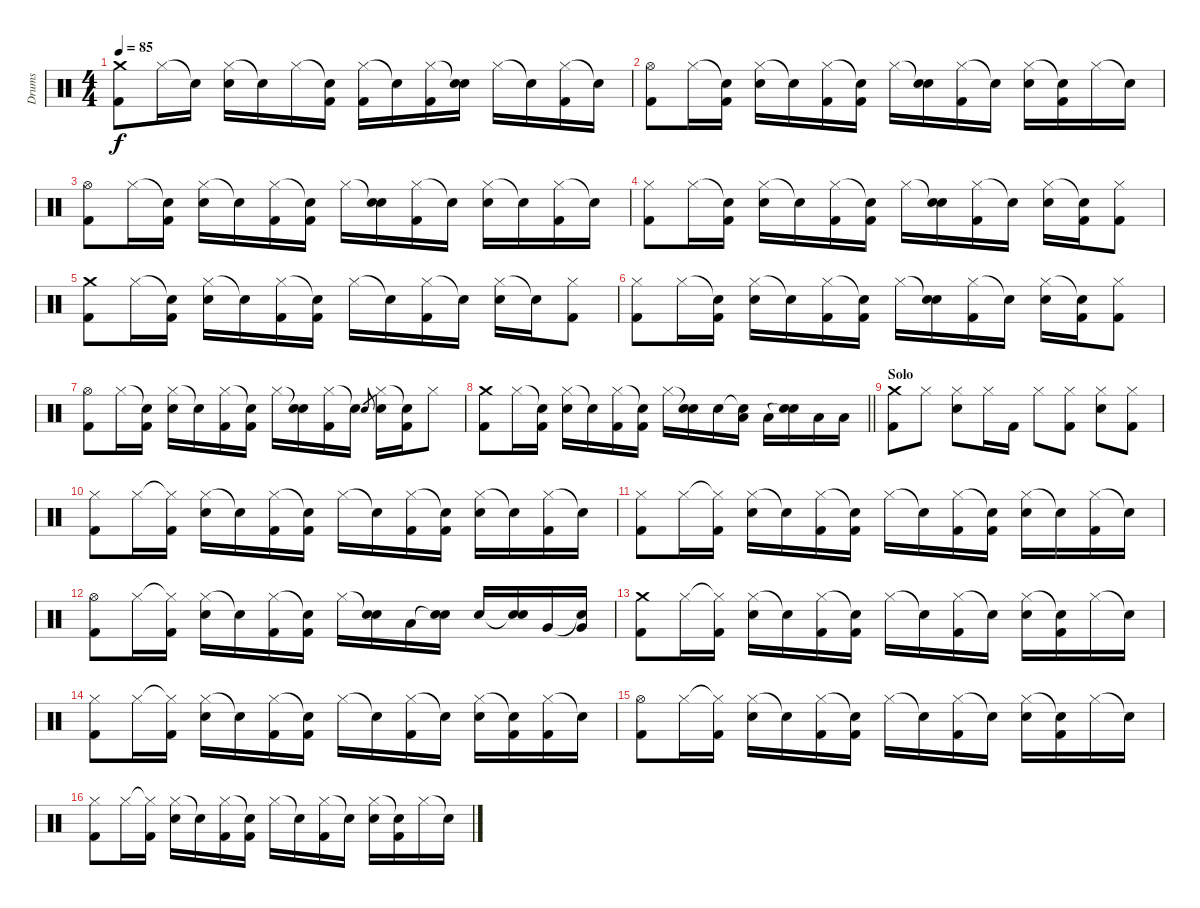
\track ("Drums" "Drums") {instrument percussion}
\staff {score}
\articulation defaults
\ts (4 4)
\tempo 85
\clef neutral
\ks c
("Crash medium (hit)" "Kick (hit) 2").8{dy f} "Hi-Hat (closed)".16 "Snare (hit)"{t}.16 ("Hi-Hat (closed)" "Electric Snare (hit)").16 "Snare (hit)"{t}.16 "Hi-Hat (closed)".16 ("Snare (hit)"{t} "Kick (hit) 2").16 ("Hi-Hat (closed)" "Kick (hit) 2").16 "Snare (hit)"{t}.16 ("Hi-Hat (closed)" "Kick (hit) 2").16 ("Snare (hit)"{t} "Electric Snare (hit)").16 "Hi-Hat (closed)".16 "Snare (hit)"{t}.16 ("Hi-Hat (closed)" "Kick (hit) 2").16 "Snare (hit)"{t}.16 |
("Hi-Hat (open)" "Kick (hit) 2").8 "Hi-Hat (closed)".16 ("Snare (hit)"{t} "Kick (hit) 2").16 ("Hi-Hat (closed)" "Electric Snare (hit)").16 "Snare (hit)"{t}.16 ("Hi-Hat (closed)" "Kick (hit) 2").16 ("Snare (hit)"{t} "Kick (hit) 2").16 "Hi-Hat (closed)".16 ("Snare (hit)"{t} "Electric Snare (hit)").16 ("Hi-Hat (closed)" "Kick (hit) 2").16 "Snare (hit)"{t}.16 ("Hi-Hat (closed)" "Electric Snare (hit)").16 ("Snare (hit)"{t} "Kick (hit) 2").16 "Hi-Hat (closed)".16 "Snare (hit)"{t}.16 |
("Hi-Hat (open)" "Kick (hit) 2").8 "Hi-Hat (closed)".16 ("Snare (hit)"{t} "Kick (hit) 2").16 ("Hi-Hat (closed)" "Electric Snare (hit)").16 "Snare (hit)"{t}.16 ("Hi-Hat (closed)" "Kick (hit) 2").16 ("Snare (hit)"{t} "Kick (hit) 2").16 "Hi-Hat (closed)".16 ("Snare (hit)"{t} "Electric Snare (hit)").16 ("Hi-Hat (closed)" "Kick (hit) 2").16 "Snare (hit)"{t}.16 ("Hi-Hat (closed)" "Electric Snare (hit)").16 "Snare (hit)"{t}.16 ("Hi-Hat (closed)" "Kick (hit) 2").16 "Snare (hit)"{t}.16 |
("Hi-Hat (closed)" "Kick (hit) 2").8 "Hi-Hat (closed)".16 ("Snare (hit)"{t} "Kick (hit) 2").16 ("Hi-Hat (closed)" "Electric Snare (hit)").16 "Snare (hit)"{t}.16 ("Hi-Hat (closed)" "Kick (hit) 2").16 ("Snare (hit)"{t} "Kick (hit) 2").16 "Hi-Hat (closed)".16 ("Snare (hit)"{t} "Electric Snare (hit)").16 ("Hi-Hat (closed)" "Kick (hit) 2").16 "Snare (hit)"{t}.16 ("Hi-Hat (closed)" "Electric Snare (hit)").16 ("Snare (hit)"{t} "Kick (hit) 2").16 ("Hi-Hat (closed)" "Kick (hit) 2").8 |
("Crash medium (hit)" "Kick (hit) 2").8 "Hi-Hat (closed)".16 ("Snare (hit)"{t} "Kick (hit) 2").16 ("Hi-Hat (closed)" "Electric Snare (hit)").16 "Snare (hit)"{t}.16 ("Hi-Hat (closed)" "Kick (hit) 2").16 ("Snare (hit)"{t} "Kick (hit) 2").16 "Hi-Hat (closed)".16 "Snare (hit)"{t}.16 ("Hi-Hat (closed)" "Kick (hit) 2").16 "Snare (hit)"{t}.16 ("Hi-Hat (closed)" "Electric Snare (hit)").16 "Snare (hit)"{t}.16 ("Hi-Hat (closed)" "Kick (hit) 2").8 |
("Hi-Hat (closed)" "Kick (hit) 2").8 "Hi-Hat (closed)".16 ("Snare (hit)"{t} "Kick (hit) 2").16 ("Hi-Hat (closed)" "Electric Snare (hit)").16 "Snare (hit)"{t}.16 ("Hi-Hat (closed)" "Kick (hit) 2").16 ("Snare (hit)"{t} "Kick (hit) 2").16 "Hi-Hat (closed)".16 ("Snare (hit)"{t} "Electric Snare (hit)").16 ("Hi-Hat (closed)" "Kick (hit) 2").16 "Snare (hit)"{t}.16 ("Hi-Hat (closed)" "Electric Snare (hit)").16 ("Snare (hit)"{t} "Kick (hit) 2").16 ("Hi-Hat (closed)" "Kick (hit) 2").8 |
("Hi-Hat (open)" "Kick (hit) 2").8 "Hi-Hat (closed)".16 ("Snare (hit)"{t} "Kick (hit) 2").16 ("Hi-Hat (closed)" "Electric Snare (hit)").16 "Snare (hit)"{t}.16 ("Hi-Hat (closed)" "Kick (hit) 2").16 ("Snare (hit)"{t} "Kick (hit) 2").16 "Hi-Hat (closed)".16 ("Snare (hit)"{t} "Electric Snare (hit)").16 ("Hi-Hat (closed)" "Kick (hit) 2").16 "Snare (hit)"{t}.16 "Electric Snare (hit)".8{gr} ("Hi-Hat (closed)" "Electric Snare (hit)").16 ("Snare (hit)"{t} "Kick (hit) 2").16 "Hi-Hat (closed)".8 |
\barLineRight lightlight
("Crash medium (hit)" "Kick (hit) 2").8 "Hi-Hat (closed)".16 ("Snare (hit)"{t} "Kick (hit) 2").16 ("Hi-Hat (closed)" "Electric Snare (hit)").16 "Snare (hit)"{t}.16 ("Hi-Hat (closed)" "Kick (hit) 2").16 ("Snare (hit)"{t} "Kick (hit) 2").16 "Hi-Hat (closed)".16 ("Snare (hit)"{t} "Electric Snare (hit)").16 "Electric Snare (hit)".16 ("Snare (hit)"{t} "Low Tom (hit)").16 "Low Tom (hit)".16 ("Snare (hit)"{t} "Electric Snare (hit)").16 "Low Tom (hit)".16 "Low Tom (hit)".16 |
\section ("" "Solo")
("Crash medium (hit)" "Kick (hit) 2").8 "Hi-Hat (closed)".8 ("Hi-Hat (closed)" "Electric Snare (hit)").8 "Hi-Hat (closed)".16 "Kick (hit) 2".16 "Hi-Hat (closed)".8 ("Hi-Hat (closed)" "Kick (hit) 2").8 ("Hi-Hat (closed)" "Electric Snare (hit)").8 ("Hi-Hat (closed)" "Kick (hit) 2").8 |
("Hi-Hat (closed)" "Kick (hit) 2").8 "Hi-Hat (closed)".16 ("Hi-Hat (closed)"{t} "Kick (hit) 2").16 ("Hi-Hat (closed)" "Electric Snare (hit)").16 "Snare (hit)"{t}.16 ("Hi-Hat (closed)" "Kick (hit) 2").16 ("Snare (hit)"{t} "Kick (hit) 2").16 "Hi-Hat (closed)".16 "Snare (hit)"{t}.16 ("Hi-Hat (closed)" "Kick (hit) 2").16 ("Snare (hit)"{t} "Kick (hit) 2").16 ("Hi-Hat (closed)" "Electric Snare (hit)").16 "Snare (hit)"{t}.16 ("Hi-Hat (closed)" "Kick (hit) 2").16 "Snare (hit)"{t}.16 |
("Hi-Hat (closed)" "Kick (hit) 2").8 "Hi-Hat (closed)".16 ("Hi-Hat (closed)"{t} "Kick (hit) 2").16 ("Hi-Hat (closed)" "Electric Snare (hit)").16 "Snare (hit)"{t}.16 ("Hi-Hat (closed)" "Kick (hit) 2").16 ("Snare (hit)"{t} "Kick (hit) 2").16 "Hi-Hat (closed)".16 "Snare (hit)"{t}.16 ("Hi-Hat (closed)" "Kick (hit) 2").16 ("Snare (hit)"{t} "Kick (hit) 2").16 ("Hi-Hat (closed)" "Electric Snare (hit)").16 "Snare (hit)"{t}.16 ("Hi-Hat (closed)" "Kick (hit) 2").16 "Snare (hit)"{t}.16 |
("Hi-Hat (open)" "Kick (hit) 2").8 "Hi-Hat (closed)".16 ("Hi-Hat (closed)"{t} "Kick (hit) 2").16 ("Hi-Hat (closed)" "Electric Snare (hit)").16 "Snare (hit)"{t}.16 ("Hi-Hat (closed)" "Kick (hit) 2").16 ("Snare (hit)"{t} "Kick (hit) 2").16 "Hi-Hat (closed)".16 ("Snare (hit)"{t} "Electric Snare (hit)").16 "Low Tom (hit)".16 ("Snare (hit)"{t} "Electric Snare (hit)").16 "Electric Snare (hit)".16 ("Snare (hit)"{t} "Electric Snare (hit)").16 "Very Low Tom (hit)".16 ("Snare (hit)"{t} "Very Low Tom (hit)").16 |
("Crash medium (hit)" "Kick (hit) 2").8 "Hi-Hat (closed)".16 ("Hi-Hat (closed)"{t} "Kick (hit) 2").16 ("Hi-Hat (closed)" "Electric Snare (hit)").16 "Snare (hit)"{t}.16 ("Hi-Hat (closed)" "Kick (hit) 2").16 ("Snare (hit)"{t} "Kick (hit) 2").16 "Hi-Hat (closed)".16 "Snare (hit)"{t}.16 ("Hi-Hat (closed)" "Kick (hit) 2").16 "Snare (hit)"{t}.16 ("Hi-Hat (closed)" "Electric Snare (hit)").16 ("Snare (hit)"{t} "Kick (hit) 2").16 "Hi-Hat (closed)".16 "Snare (hit)"{t}.16 |
("Hi-Hat (closed)" "Kick (hit) 2").8 "Hi-Hat (closed)".16 ("Hi-Hat (closed)"{t} "Kick (hit) 2").16 ("Hi-Hat (closed)" "Electric Snare (hit)").16 "Snare (hit)"{t}.16 ("Hi-Hat (closed)" "Kick (hit) 2").16 ("Snare (hit)"{t} "Kick (hit) 2").16 "Hi-Hat (closed)".16 "Snare (hit)"{t}.16 ("Hi-Hat (closed)" "Kick (hit) 2").16 "Snare (hit)"{t}.16 ("Hi-Hat (closed)" "Electric Snare (hit)").16 ("Snare (hit)"{t} "Kick (hit) 2").16 ("Hi-Hat (closed)" "Kick (hit) 2").16 "Snare (hit)"{t}.16 |
("Hi-Hat (open)" "Kick (hit) 2").8 "Hi-Hat (closed)".16 ("Hi-Hat (closed)"{t} "Kick (hit) 2").16 ("Hi-Hat (closed)" "Electric Snare (hit)").16 "Snare (hit)"{t}.16 ("Hi-Hat (closed)" "Kick (hit) 2").16 ("Snare (hit)"{t} "Kick (hit) 2").16 "Hi-Hat (closed)".16 "Snare (hit)"{t}.16 ("Hi-Hat (closed)" "Kick (hit) 2").16 "Snare (hit)"{t}.16 ("Hi-Hat (closed)" "Electric Snare (hit)").16 ("Snare (hit)"{t} "Kick (hit) 2").16 "Hi-Hat (closed)".16 "Snare (hit)"{t}.16 |
("Hi-Hat (closed)" "Kick (hit) 2").8 "Hi-Hat (closed)".16 ("Hi-Hat (closed)"{t} "Kick (hit) 2").16 ("Hi-Hat (closed)" "Electric Snare (hit)").16 "Snare (hit)"{t}.16 ("Hi-Hat (closed)" "Kick (hit) 2").16 ("Snare (hit)"{t} "Kick (hit) 2").16 "Hi-Hat (closed)".16 "Snare (hit)"{t}.16 ("Hi-Hat (closed)" "Kick (hit) 2").16 "Snare (hit)"{t}.16 ("Hi-Hat (closed)" "Electric Snare (hit)").16 ("Snare (hit)"{t} "Kick (hit) 2").16 "Hi-Hat (closed)".16 "Snare (hit)"{t}.16
